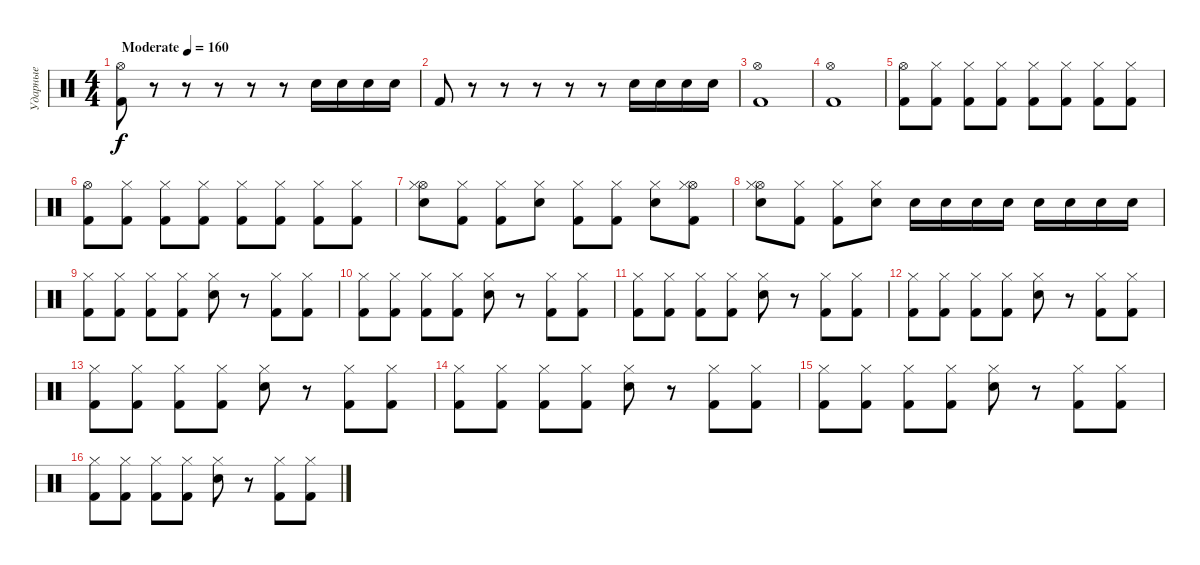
\track ("Ударные" "Ударные") {instrument percussion}
\staff {score}
\articulation defaults
\ts (4 4)
\tempo (160 "Moderate")
\clef neutral
\ks c
("Kick (hit) 2" "Hi-Hat (open)").8{dy f} r.8 r.8 r.8 r.8 r.8 "Electric Snare (hit)".16 "Electric Snare (hit)".16 "Electric Snare (hit)".16 "Electric Snare (hit)".16 |
"Kick (hit) 2".8 r.8 r.8 r.8 r.8 r.8 "Electric Snare (hit)".16 "Electric Snare (hit)".16 "Electric Snare (hit)".16 "Electric Snare (hit)".16 |
("Kick (hit) 2" "Hi-Hat (open)").1 |
("Kick (hit) 2" "Hi-Hat (open)").1 |
("Kick (hit) 2" "Hi-Hat (open)").8 ("Hi-Hat (closed)" "Kick (hit) 2").8 ("Hi-Hat (closed)" "Kick (hit) 2").8 ("Hi-Hat (closed)" "Kick (hit) 2").8 ("Hi-Hat (closed)" "Kick (hit) 2").8 ("Hi-Hat (closed)" "Kick (hit) 2").8 ("Hi-Hat (closed)" "Kick (hit) 2").8 ("Hi-Hat (closed)" "Kick (hit) 2").8 |
("Kick (hit) 2" "Hi-Hat (open)").8 ("Hi-Hat (closed)" "Kick (hit) 2").8 ("Hi-Hat (closed)" "Kick (hit) 2").8 ("Hi-Hat (closed)" "Kick (hit) 2").8 ("Hi-Hat (closed)" "Kick (hit) 2").8 ("Hi-Hat (closed)" "Kick (hit) 2").8 ("Hi-Hat (closed)" "Kick (hit) 2").8 ("Hi-Hat (closed)" "Kick (hit) 2").8 |
("Electric Snare (hit)" "Hi-Hat (open)" "Hi-Hat (closed)").8 ("Kick (hit) 2" "Hi-Hat (closed)").8 ("Kick (hit) 2" "Hi-Hat (closed)").8 ("Electric Snare (hit)" "Hi-Hat (closed)").8 ("Kick (hit) 2" "Hi-Hat (closed)").8 ("Kick (hit) 2" "Hi-Hat (closed)").8 ("Electric Snare (hit)" "Hi-Hat (closed)").8 ("Kick (hit) 2" "Hi-Hat (open)" "Hi-Hat (closed)").8 |
("Electric Snare (hit)" "Hi-Hat (open)" "Hi-Hat (closed)").8 ("Kick (hit) 2" "Hi-Hat (closed)").8 ("Kick (hit) 2" "Hi-Hat (closed)").8 ("Electric Snare (hit)" "Hi-Hat (closed)").8 "Electric Snare (hit)".16 "Electric Snare (hit)".16 "Electric Snare (hit)".16 "Electric Snare (hit)".16 "Electric Snare (hit)".16 "Electric Snare (hit)".16 "Electric Snare (hit)".16 "Electric Snare (hit)".16 |
("Kick (hit) 2" "Hi-Hat (closed)").8 ("Kick (hit) 2" "Hi-Hat (closed)").8 ("Kick (hit) 2" "Hi-Hat (closed)").8 ("Kick (hit) 2" "Hi-Hat (closed)").8 ("Electric Snare (hit)" "Hi-Hat (closed)").8 r.8 ("Kick (hit) 2" "Hi-Hat (closed)").8 ("Kick (hit) 2" "Hi-Hat (closed)").8 |
("Kick (hit) 2" "Hi-Hat (closed)").8 ("Kick (hit) 2" "Hi-Hat (closed)").8 ("Kick (hit) 2" "Hi-Hat (closed)").8 ("Kick (hit) 2" "Hi-Hat (closed)").8 ("Electric Snare (hit)" "Hi-Hat (closed)").8 r.8 ("Kick (hit) 2" "Hi-Hat (closed)").8 ("Kick (hit) 2" "Hi-Hat (closed)").8 |
("Kick (hit) 2" "Hi-Hat (closed)").8 ("Kick (hit) 2" "Hi-Hat (closed)").8 ("Kick (hit) 2" "Hi-Hat (closed)").8 ("Kick (hit) 2" "Hi-Hat (closed)").8 ("Electric Snare (hit)" "Hi-Hat (closed)").8 r.8 ("Kick (hit) 2" "Hi-Hat (closed)").8 ("Kick (hit) 2" "Hi-Hat (closed)").8 |
("Kick (hit) 2" "Hi-Hat (closed)").8 ("Kick (hit) 2" "Hi-Hat (closed)").8 ("Kick (hit) 2" "Hi-Hat (closed)").8 ("Kick (hit) 2" "Hi-Hat (closed)").8 ("Electric Snare (hit)" "Hi-Hat (closed)").8 r.8 ("Kick (hit) 2" "Hi-Hat (closed)").8 ("Kick (hit) 2" "Hi-Hat (closed)").8 |
("Kick (hit) 2" "Hi-Hat (closed)").8 ("Kick (hit) 2" "Hi-Hat (closed)").8 ("Kick (hit) 2" "Hi-Hat (closed)").8 ("Kick (hit) 2" "Hi-Hat (closed)").8 ("Electric Snare (hit)" "Hi-Hat (closed)").8 r.8 ("Kick (hit) 2" "Hi-Hat (closed)").8 ("Kick (hit) 2" "Hi-Hat (closed)").8 |
("Kick (hit) 2" "Hi-Hat (closed)").8 ("Kick (hit) 2" "Hi-Hat (closed)").8 ("Kick (hit) 2" "Hi-Hat (closed)").8 ("Kick (hit) 2" "Hi-Hat (closed)").8 ("Electric Snare (hit)" "Hi-Hat (closed)").8 r.8 ("Kick (hit) 2" "Hi-Hat (closed)").8 ("Kick (hit) 2" "Hi-Hat (closed)").8 |
("Kick (hit) 2" "Hi-Hat (closed)").8 ("Kick (hit) 2" "Hi-Hat (closed)").8 ("Kick (hit) 2" "Hi-Hat (closed)").8 ("Kick (hit) 2" "Hi-Hat (closed)").8 ("Electric Snare (hit)" "Hi-Hat (closed)").8 r.8 ("Kick (hit) 2" "Hi-Hat (closed)").8 ("Kick (hit) 2" "Hi-Hat (closed)").8 |
("Kick (hit) 2" "Hi-Hat (closed)").8 ("Kick (hit) 2" "Hi-Hat (closed)").8 ("Kick (hit) 2" "Hi-Hat (closed)").8 ("Kick (hit) 2" "Hi-Hat (closed)").8 ("Electric Snare (hit)" "Hi-Hat (closed)").8 r.8 ("Kick (hit) 2" "Hi-Hat (closed)").8 ("Kick (hit) 2" "Hi-Hat (closed)").8
